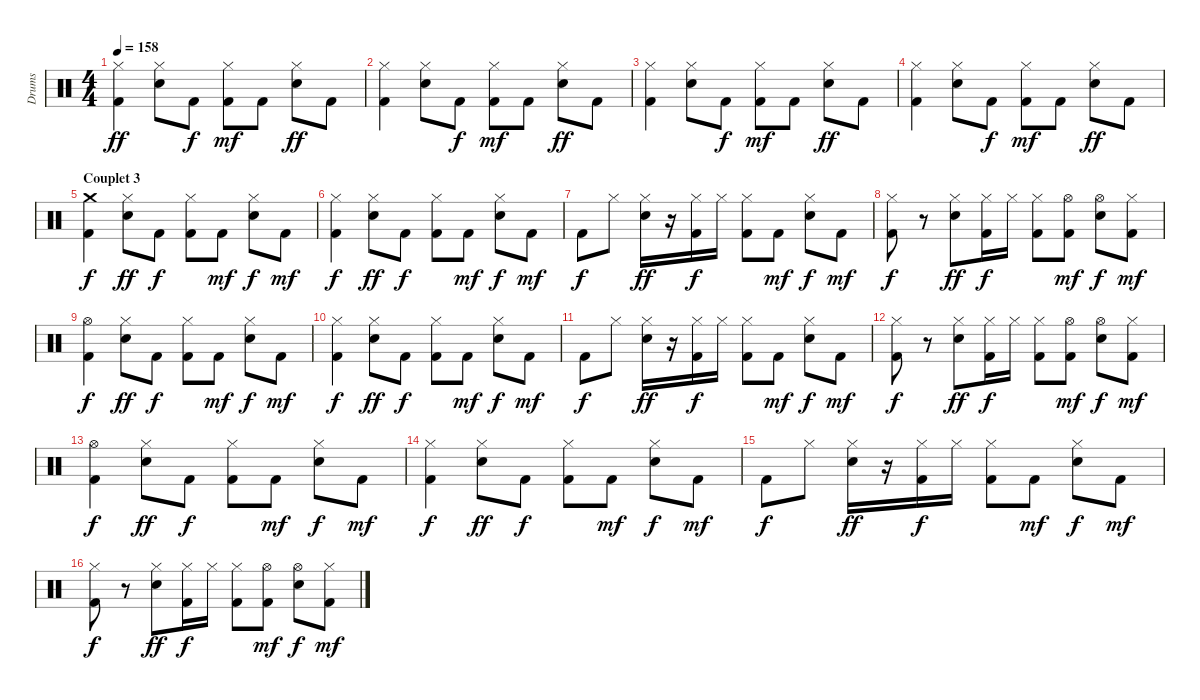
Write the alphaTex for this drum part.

\track ("Drums" "Drums") {instrument percussion}
\staff {score}
\articulation defaults
\ts (4 4)
\tempo 158
\clef neutral
\ks c
("Hi-Hat (closed)" "Kick (hit) 2").4{dy ff} ("Hi-Hat (closed)" "Snare (hit) 2").8 "Kick (hit) 2".8{dy f} ("Hi-Hat (closed)" "Kick (hit) 2").8{dy mf} "Kick (hit) 2".8 ("Hi-Hat (closed)" "Snare (hit) 2").8{dy ff} "Kick (hit) 2".8 |
("Hi-Hat (closed)" "Kick (hit) 2").4 ("Hi-Hat (closed)" "Snare (hit) 2").8 "Kick (hit) 2".8{dy f} ("Hi-Hat (closed)" "Kick (hit) 2").8{dy mf} "Kick (hit) 2".8 ("Hi-Hat (closed)" "Snare (hit) 2").8{dy ff} "Kick (hit) 2".8 |
("Hi-Hat (closed)" "Kick (hit) 2").4 ("Hi-Hat (closed)" "Snare (hit) 2").8 "Kick (hit) 2".8{dy f} ("Hi-Hat (closed)" "Kick (hit) 2").8{dy mf} "Kick (hit) 2".8 ("Hi-Hat (closed)" "Snare (hit) 2").8{dy ff} "Kick (hit) 2".8 |
("Hi-Hat (closed)" "Kick (hit) 2").4 ("Hi-Hat (closed)" "Snare (hit) 2").8 "Kick (hit) 2".8{dy f} ("Hi-Hat (closed)" "Kick (hit) 2").8{dy mf} "Kick (hit) 2".8 ("Hi-Hat (closed)" "Snare (hit) 2").8{dy ff} "Kick (hit) 2".8 |
\section ("" "Couplet 3")
("Crash medium (hit)" "Kick (hit) 2").4{dy f} ("Hi-Hat (closed)" "Snare (hit) 2").8{dy ff} "Kick (hit) 2".8{dy f} ("Hi-Hat (closed)" "Kick (hit) 2").8 "Kick (hit) 2".8{dy mf} ("Hi-Hat (closed)" "Snare (hit) 2").8{dy f} "Kick (hit) 2".8{dy mf} |
("Hi-Hat (closed)" "Kick (hit) 2").4{dy f} ("Hi-Hat (closed)" "Snare (hit) 2").8{dy ff} "Kick (hit) 2".8{dy f} ("Hi-Hat (closed)" "Kick (hit) 2").8 "Kick (hit) 2".8{dy mf} ("Hi-Hat (closed)" "Snare (hit) 2").8{dy f} "Kick (hit) 2".8{dy mf} |
"Kick (hit) 2".8{dy f} "Hi-Hat (closed)".8 ("Hi-Hat (closed)" "Snare (hit) 2").16{dy ff} r.16 ("Hi-Hat (closed)" "Kick (hit) 2").16{dy f} "Hi-Hat (closed)".16 ("Hi-Hat (closed)" "Kick (hit) 2").8 "Kick (hit) 2".8{dy mf} ("Hi-Hat (closed)" "Snare (hit) 2").8{dy f} "Kick (hit) 2".8{dy mf} |
("Hi-Hat (closed)" "Kick (hit) 2").8{dy f} r.8 ("Hi-Hat (closed)" "Snare (hit) 2").8{dy ff} ("Hi-Hat (closed)" "Kick (hit) 2").16{dy f} "Hi-Hat (closed)".16 ("Hi-Hat (closed)" "Kick (hit) 2").8 ("Hi-Hat (open)" "Kick (hit) 2").8{dy mf} ("Hi-Hat (open)" "Snare (hit) 2").8{dy f} ("Hi-Hat (closed)" "Kick (hit) 2").8{dy mf} |
("Hi-Hat (open)" "Kick (hit) 2").4{dy f} ("Hi-Hat (closed)" "Snare (hit) 2").8{dy ff} "Kick (hit) 2".8{dy f} ("Hi-Hat (closed)" "Kick (hit) 2").8 "Kick (hit) 2".8{dy mf} ("Hi-Hat (closed)" "Snare (hit) 2").8{dy f} "Kick (hit) 2".8{dy mf} |
("Hi-Hat (closed)" "Kick (hit) 2").4{dy f} ("Hi-Hat (closed)" "Snare (hit) 2").8{dy ff} "Kick (hit) 2".8{dy f} ("Hi-Hat (closed)" "Kick (hit) 2").8 "Kick (hit) 2".8{dy mf} ("Hi-Hat (closed)" "Snare (hit) 2").8{dy f} "Kick (hit) 2".8{dy mf} |
"Kick (hit) 2".8{dy f} "Hi-Hat (closed)".8 ("Hi-Hat (closed)" "Snare (hit) 2").16{dy ff} r.16 ("Hi-Hat (closed)" "Kick (hit) 2").16{dy f} "Hi-Hat (closed)".16 ("Hi-Hat (closed)" "Kick (hit) 2").8 "Kick (hit) 2".8{dy mf} ("Hi-Hat (closed)" "Snare (hit) 2").8{dy f} "Kick (hit) 2".8{dy mf} |
("Hi-Hat (closed)" "Kick (hit) 2").8{dy f} r.8 ("Hi-Hat (closed)" "Snare (hit) 2").8{dy ff} ("Hi-Hat (closed)" "Kick (hit) 2").16{dy f} "Hi-Hat (closed)".16 ("Hi-Hat (closed)" "Kick (hit) 2").8 ("Hi-Hat (open)" "Kick (hit) 2").8{dy mf} ("Hi-Hat (open)" "Snare (hit) 2").8{dy f} ("Hi-Hat (closed)" "Kick (hit) 2").8{dy mf} |
("Hi-Hat (open)" "Kick (hit) 2").4{dy f} ("Hi-Hat (closed)" "Snare (hit) 2").8{dy ff} "Kick (hit) 2".8{dy f} ("Hi-Hat (closed)" "Kick (hit) 2").8 "Kick (hit) 2".8{dy mf} ("Hi-Hat (closed)" "Snare (hit) 2").8{dy f} "Kick (hit) 2".8{dy mf} |
("Hi-Hat (closed)" "Kick (hit) 2").4{dy f} ("Hi-Hat (closed)" "Snare (hit) 2").8{dy ff} "Kick (hit) 2".8{dy f} ("Hi-Hat (closed)" "Kick (hit) 2").8 "Kick (hit) 2".8{dy mf} ("Hi-Hat (closed)" "Snare (hit) 2").8{dy f} "Kick (hit) 2".8{dy mf} |
"Kick (hit) 2".8{dy f} "Hi-Hat (closed)".8 ("Hi-Hat (closed)" "Snare (hit) 2").16{dy ff} r.16 ("Hi-Hat (closed)" "Kick (hit) 2").16{dy f} "Hi-Hat (closed)".16 ("Hi-Hat (closed)" "Kick (hit) 2").8 "Kick (hit) 2".8{dy mf} ("Hi-Hat (closed)" "Snare (hit) 2").8{dy f} "Kick (hit) 2".8{dy mf} |
("Hi-Hat (closed)" "Kick (hit) 2").8{dy f} r.8 ("Hi-Hat (closed)" "Snare (hit) 2").8{dy ff} ("Hi-Hat (closed)" "Kick (hit) 2").16{dy f} "Hi-Hat (closed)".16 ("Hi-Hat (closed)" "Kick (hit) 2").8 ("Hi-Hat (open)" "Kick (hit) 2").8{dy mf} ("Hi-Hat (open)" "Snare (hit) 2").8{dy f} ("Hi-Hat (closed)" "Kick (hit) 2").8{dy mf}
